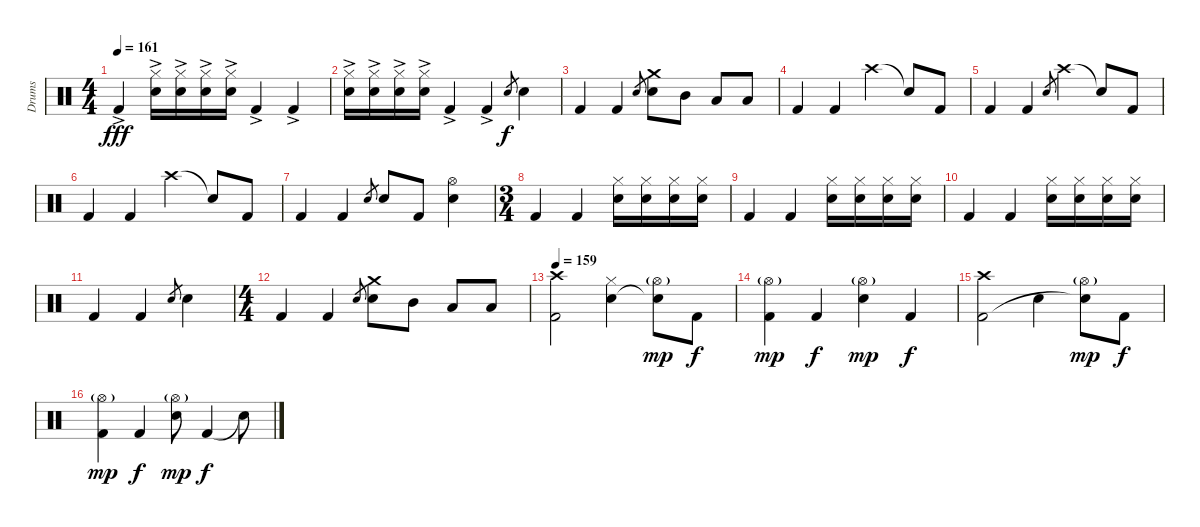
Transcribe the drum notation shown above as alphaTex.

\track ("Drums" "Drums") {instrument percussion}
\staff {score}
\articulation defaults
\ts (4 4)
\tempo 161
\clef neutral
\ks c "Kick (hit) 2"{ac}.4{dy fff}
("Hi-Hat (closed)" "Electric Snare (hit)"{ac}).16 ("Hi-Hat (closed)" "Electric Snare (hit)"{ac}).16 ("Hi-Hat (closed)" "Electric Snare (hit)"{ac}).16 ("Hi-Hat (closed)" "Electric Snare (hit)"{ac}).16 "Kick (hit) 2"{ac}.4 "Kick (hit) 2"{ac}.4 |
("Hi-Hat (closed)" "Electric Snare (hit)"{ac}).16 ("Hi-Hat (closed)" "Electric Snare (hit)"{ac}).16 ("Hi-Hat (closed)" "Electric Snare (hit)"{ac}).16 ("Hi-Hat (closed)" "Electric Snare (hit)"{ac}).16 "Kick (hit) 2"{ac}.4 "Kick (hit) 2"{ac}.4 "Electric Snare (hit)".8{gr dy f} "Electric Snare (hit)".4 |
"Kick (hit) 2".4 "Kick (hit) 2".4 "Electric Snare (hit)".8{gr} ("Electric Snare (hit)" "Crash medium (hit)").8 "Mid Tom (hit)".8 "Low Tom (hit)".8 "Low Floor Tom (hit)".8 |
"Kick (hit) 2".4 "Kick (hit) 2".4 "Crash high (hit)".4 "Snare (hit)"{t}.8 "Kick (hit) 2".8 |
"Kick (hit) 2".4 "Kick (hit) 2".4 "Electric Snare (hit)".8{gr} "Crash high (hit)".4 "Snare (hit)"{t}.8 "Kick (hit) 2".8 |
"Kick (hit) 2".4 "Kick (hit) 2".4 "Crash high (hit)".4 "Snare (hit)"{t}.8 "Kick (hit) 2".8 |
"Kick (hit) 2".4 "Kick (hit) 2".4 "Electric Snare (hit)".8{gr} "Electric Snare (hit)".8 "Kick (hit) 2".8 ("Hi-Hat (open)" "Electric Snare (hit)").4 |
\ts (3 4)
"Kick (hit) 2".4 "Kick (hit) 2".4 ("Hi-Hat (closed)" "Electric Snare (hit)").16 ("Hi-Hat (closed)" "Electric Snare (hit)").16 ("Hi-Hat (closed)" "Electric Snare (hit)").16 ("Hi-Hat (closed)" "Electric Snare (hit)").16 |
"Kick (hit) 2".4 "Kick (hit) 2".4 ("Hi-Hat (closed)" "Electric Snare (hit)").16 ("Hi-Hat (closed)" "Electric Snare (hit)").16 ("Hi-Hat (closed)" "Electric Snare (hit)").16 ("Hi-Hat (closed)" "Electric Snare (hit)").16 |
"Kick (hit) 2".4 "Kick (hit) 2".4 ("Hi-Hat (closed)" "Electric Snare (hit)").16 ("Hi-Hat (closed)" "Electric Snare (hit)").16 ("Hi-Hat (closed)" "Electric Snare (hit)").16 ("Hi-Hat (closed)" "Electric Snare (hit)").16 |
"Kick (hit) 2".4 "Kick (hit) 2".4 "Electric Snare (hit)".8{gr} "Electric Snare (hit)".4 |
\ts (4 4)
"Kick (hit) 2".4 "Kick (hit) 2".4 "Electric Snare (hit)".8{gr} ("Electric Snare (hit)" "Crash medium (hit)").8 "Mid Tom (hit)".8 "Low Tom (hit)".8 "Low Floor Tom (hit)".8 |
\tempo 159
("Crash high (hit)" "Kick (hit) 2").2 ("Hi-Hat (closed)" "Electric Snare (hit)").4 ("Hi-Hat (open)"{g} "Snare (hit)"{t}).8{dy mp} "Kick (hit) 2".8{dy f} |
("Hi-Hat (open)"{g} "Kick (hit) 2").4{dy mp} "Kick (hit) 2".4{dy f} ("Hi-Hat (open)"{g} "Electric Snare (hit)").4{dy mp} "Kick (hit) 2".4{dy f} |
("Crash high (hit)" "Kick (hit) 2").2 "Electric Snare (hit)".4 ("Hi-Hat (open)"{g} "Snare (hit)"{t}).8{dy mp} "Kick (hit) 2".8{dy f} |
("Hi-Hat (open)"{g} "Kick (hit) 2").4{dy mp} "Kick (hit) 2".4{dy f} ("Hi-Hat (open)"{g} "Electric Snare (hit)").8{dy mp} "Kick (hit) 2".4{dy f} "Snare (hit)"{t}.8
